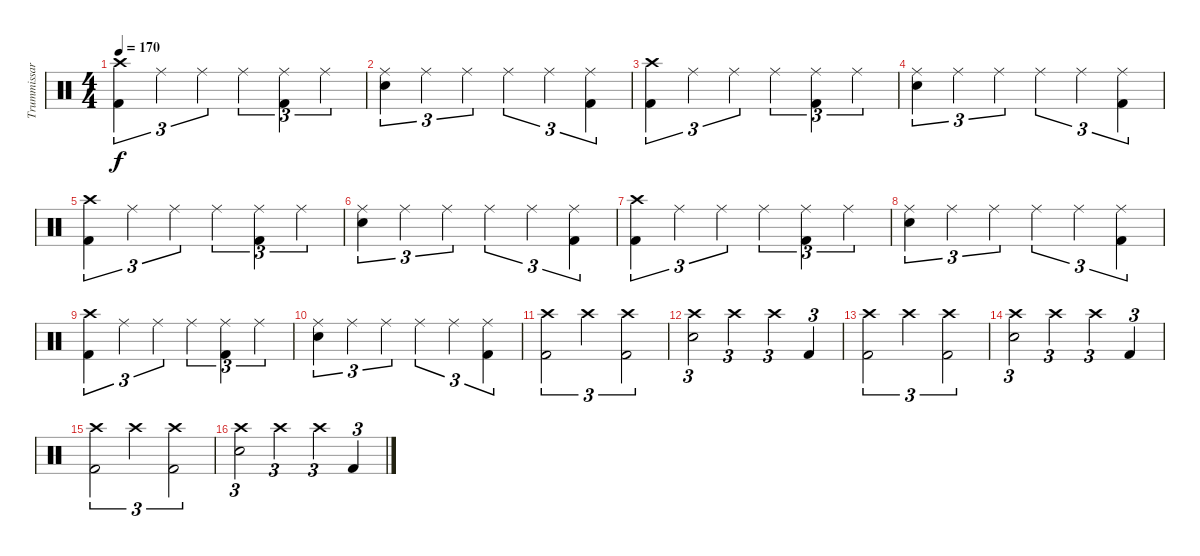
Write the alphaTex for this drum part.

\track ("Trummissar!!" "Trummissar") {instrument percussion}
\staff {score}
\articulation defaults
\ts (4 4)
\tempo 170
\clef neutral
\ks c
("Crash high (hit)" "Kick (hit) 2").4{tu (3 2) dy f} "Ride (middle)".4{tu (3 2)} "Ride (middle)".4{tu (3 2)} "Ride (middle)".4{tu (3 2)} ("Ride (middle)" "Kick (hit) 2").4{tu (3 2)} "Ride (middle)".4{tu (3 2)} |
("Ride (middle)" "Electric Snare (hit)").4{tu (3 2)} "Ride (middle)".4{tu (3 2)} "Ride (middle)".4{tu (3 2)} "Ride (middle)".4{tu (3 2)} "Ride (middle)".4{tu (3 2)} ("Ride (middle)" "Kick (hit) 2").4{tu (3 2)} |
("Crash high (hit)" "Kick (hit) 2").4{tu (3 2)} "Ride (middle)".4{tu (3 2)} "Ride (middle)".4{tu (3 2)} "Ride (middle)".4{tu (3 2)} ("Ride (middle)" "Kick (hit) 2").4{tu (3 2)} "Ride (middle)".4{tu (3 2)} |
("Ride (middle)" "Electric Snare (hit)").4{tu (3 2)} "Ride (middle)".4{tu (3 2)} "Ride (middle)".4{tu (3 2)} "Ride (middle)".4{tu (3 2)} "Ride (middle)".4{tu (3 2)} ("Ride (middle)" "Kick (hit) 2").4{tu (3 2)} |
("Crash high (hit)" "Kick (hit) 2").4{tu (3 2)} "Ride (middle)".4{tu (3 2)} "Ride (middle)".4{tu (3 2)} "Ride (middle)".4{tu (3 2)} ("Ride (middle)" "Kick (hit) 2").4{tu (3 2)} "Ride (middle)".4{tu (3 2)} |
("Ride (middle)" "Electric Snare (hit)").4{tu (3 2)} "Ride (middle)".4{tu (3 2)} "Ride (middle)".4{tu (3 2)} "Ride (middle)".4{tu (3 2)} "Ride (middle)".4{tu (3 2)} ("Ride (middle)" "Kick (hit) 2").4{tu (3 2)} |
("Crash high (hit)" "Kick (hit) 2").4{tu (3 2)} "Ride (middle)".4{tu (3 2)} "Ride (middle)".4{tu (3 2)} "Ride (middle)".4{tu (3 2)} ("Ride (middle)" "Kick (hit) 2").4{tu (3 2)} "Ride (middle)".4{tu (3 2)} |
("Ride (middle)" "Electric Snare (hit)").4{tu (3 2)} "Ride (middle)".4{tu (3 2)} "Ride (middle)".4{tu (3 2)} "Ride (middle)".4{tu (3 2)} "Ride (middle)".4{tu (3 2)} ("Ride (middle)" "Kick (hit) 2").4{tu (3 2)} |
("Crash high (hit)" "Kick (hit) 2").4{tu (3 2)} "Ride (middle)".4{tu (3 2)} "Ride (middle)".4{tu (3 2)} "Ride (middle)".4{tu (3 2)} ("Ride (middle)" "Kick (hit) 2").4{tu (3 2)} "Ride (middle)".4{tu (3 2)} |
("Ride (middle)" "Electric Snare (hit)").4{tu (3 2)} "Ride (middle)".4{tu (3 2)} "Ride (middle)".4{tu (3 2)} "Ride (middle)".4{tu (3 2)} "Ride (middle)".4{tu (3 2)} ("Ride (middle)" "Kick (hit) 2").4{tu (3 2)} |
("Crash high (hit)" "Kick (hit) 2").2{tu (3 2)} "Crash high (hit)".2{tu (3 2)} ("Crash high (hit)" "Kick (hit) 2").2{tu (3 2)} |
("Crash high (hit)" "Electric Snare (hit)").2{tu (3 2)} "Crash high (hit)".2{tu (3 2)} "Crash high (hit)".4{tu (3 2)} "Kick (hit) 2".4{tu (3 2)} |
("Crash high (hit)" "Kick (hit) 2").2{tu (3 2)} "Crash high (hit)".2{tu (3 2)} ("Crash high (hit)" "Kick (hit) 2").2{tu (3 2)} |
("Crash high (hit)" "Electric Snare (hit)").2{tu (3 2)} "Crash high (hit)".2{tu (3 2)} "Crash high (hit)".4{tu (3 2)} "Kick (hit) 2".4{tu (3 2)} |
("Crash high (hit)" "Kick (hit) 2").2{tu (3 2)} "Crash high (hit)".2{tu (3 2)} ("Crash high (hit)" "Kick (hit) 2").2{tu (3 2)} |
("Crash high (hit)" "Electric Snare (hit)").2{tu (3 2)} "Crash high (hit)".2{tu (3 2)} "Crash high (hit)".4{tu (3 2)} "Kick (hit) 2".4{tu (3 2)}
